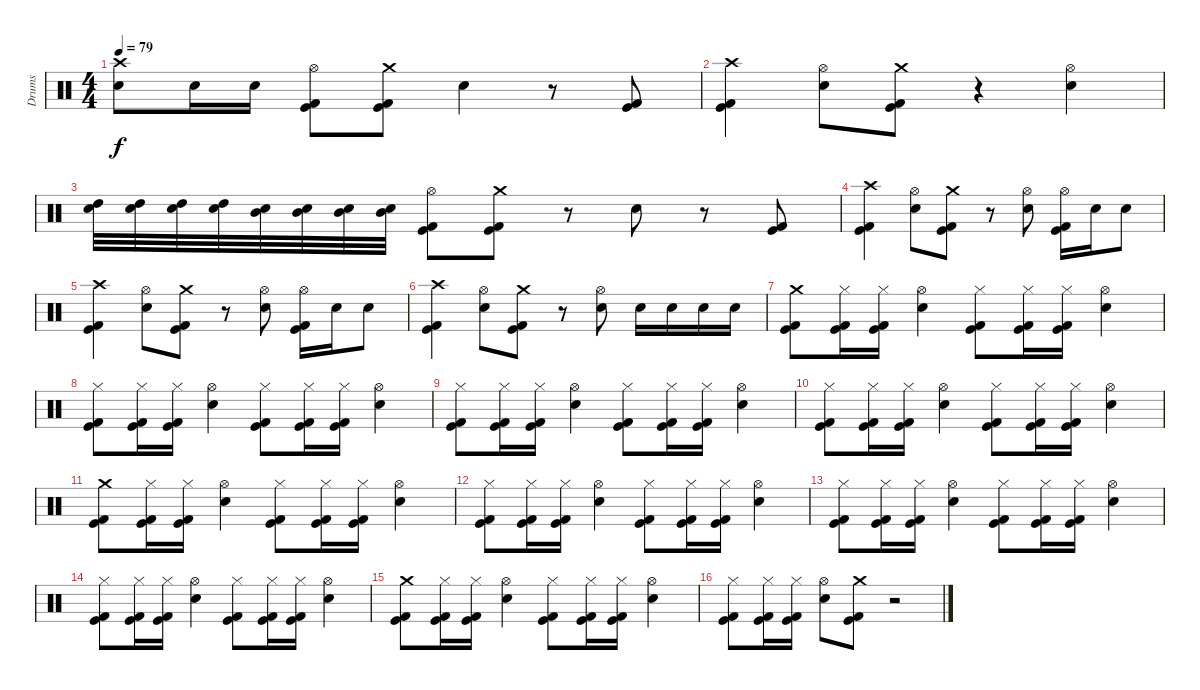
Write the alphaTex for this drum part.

\track ("Drums" "Drums") {instrument percussion}
\staff {score}
\articulation defaults
\ts (4 4)
\tempo 79
\clef neutral
\ks c
("Crash high (hit)" "Snare (hit) 2").8{dy f} "Snare (hit) 2".16 "Snare (hit) 2".16 ("Hi-Hat (open)" "Kick (hit) 2" "Kick (hit)").8 ("Crash medium (hit)" "Kick (hit) 2" "Kick (hit)").8 "Snare (hit) 2".4 r.8 ("Kick (hit) 2" "Kick (hit)").8 |
("Crash high (hit)" "Kick (hit) 2" "Kick (hit)").4 ("Hi-Hat (open)" "Snare (hit) 2").8 ("Crash medium (hit)" "Kick (hit) 2" "Kick (hit)").8 r.4 ("Hi-Hat (open)" "Snare (hit) 2").4 |
("Snare (hit) 2" "High Tom (hit)").32 ("Snare (hit) 2" "High Tom (hit)").32 ("Snare (hit) 2" "High Tom (hit)").32 ("Snare (hit) 2" "High Tom (hit)").32 ("Snare (hit) 2" "Mid Tom (hit)").32 ("Snare (hit) 2" "Mid Tom (hit)").32 ("Snare (hit) 2" "Mid Tom (hit)").32 ("Snare (hit) 2" "Mid Tom (hit)").32 ("Hi-Hat (open)" "Kick (hit) 2" "Kick (hit)").8 ("Crash medium (hit)" "Kick (hit) 2" "Kick (hit)").8 r.8 "Snare (hit) 2".8 r.8 ("Kick (hit) 2" "Kick (hit)").8 |
("Crash high (hit)" "Kick (hit) 2" "Kick (hit)").4 ("Hi-Hat (open)" "Snare (hit) 2").8 ("Crash medium (hit)" "Kick (hit) 2" "Kick (hit)").8 r.8 ("Hi-Hat (open)" "Snare (hit) 2").8 ("Hi-Hat (open)" "Kick (hit) 2" "Kick (hit)").16 "Snare (hit) 2".16 "Snare (hit) 2".8 |
("Crash high (hit)" "Kick (hit) 2" "Kick (hit)").4 ("Hi-Hat (open)" "Snare (hit) 2").8 ("Crash medium (hit)" "Kick (hit) 2" "Kick (hit)").8 r.8 ("Hi-Hat (open)" "Snare (hit) 2").8 ("Hi-Hat (open)" "Kick (hit) 2" "Kick (hit)").16 "Snare (hit) 2".16 "Snare (hit) 2".8 |
("Crash high (hit)" "Kick (hit) 2" "Kick (hit)").4 ("Hi-Hat (open)" "Snare (hit) 2").8 ("Crash medium (hit)" "Kick (hit) 2" "Kick (hit)").8 r.8 ("Hi-Hat (open)" "Snare (hit) 2").8 "Snare (hit) 2".16 "Snare (hit) 2".16 "Snare (hit) 2".16 "Snare (hit) 2".16 |
("Crash medium (hit)" "Kick (hit) 2" "Kick (hit)").8 ("Hi-Hat (closed)" "Kick (hit) 2" "Kick (hit)").16 ("Hi-Hat (closed)" "Kick (hit) 2" "Kick (hit)").16 ("Hi-Hat (open)" "Snare (hit) 2").4 ("Hi-Hat (closed)" "Kick (hit) 2" "Kick (hit)").8 ("Hi-Hat (closed)" "Kick (hit) 2" "Kick (hit)").16 ("Hi-Hat (closed)" "Kick (hit) 2" "Kick (hit)").16 ("Hi-Hat (open)" "Snare (hit) 2").4 |
("Hi-Hat (closed)" "Kick (hit) 2" "Kick (hit)").8 ("Hi-Hat (closed)" "Kick (hit) 2" "Kick (hit)").16 ("Hi-Hat (closed)" "Kick (hit) 2" "Kick (hit)").16 ("Hi-Hat (open)" "Snare (hit) 2").4 ("Hi-Hat (closed)" "Kick (hit) 2" "Kick (hit)").8 ("Hi-Hat (closed)" "Kick (hit) 2" "Kick (hit)").16 ("Hi-Hat (closed)" "Kick (hit) 2" "Kick (hit)").16 ("Hi-Hat (open)" "Snare (hit) 2").4 |
("Hi-Hat (closed)" "Kick (hit) 2" "Kick (hit)").8 ("Hi-Hat (closed)" "Kick (hit) 2" "Kick (hit)").16 ("Hi-Hat (closed)" "Kick (hit) 2" "Kick (hit)").16 ("Hi-Hat (open)" "Snare (hit) 2").4 ("Hi-Hat (closed)" "Kick (hit) 2" "Kick (hit)").8 ("Hi-Hat (closed)" "Kick (hit) 2" "Kick (hit)").16 ("Hi-Hat (closed)" "Kick (hit) 2" "Kick (hit)").16 ("Hi-Hat (open)" "Snare (hit) 2").4 |
("Hi-Hat (closed)" "Kick (hit) 2" "Kick (hit)").8 ("Hi-Hat (closed)" "Kick (hit) 2" "Kick (hit)").16 ("Hi-Hat (closed)" "Kick (hit) 2" "Kick (hit)").16 ("Hi-Hat (open)" "Snare (hit) 2").4 ("Hi-Hat (closed)" "Kick (hit) 2" "Kick (hit)").8 ("Hi-Hat (closed)" "Kick (hit) 2" "Kick (hit)").16 ("Hi-Hat (closed)" "Kick (hit) 2" "Kick (hit)").16 ("Hi-Hat (open)" "Snare (hit) 2").4 |
("Crash medium (hit)" "Kick (hit) 2" "Kick (hit)").8 ("Hi-Hat (closed)" "Kick (hit) 2" "Kick (hit)").16 ("Hi-Hat (closed)" "Kick (hit) 2" "Kick (hit)").16 ("Hi-Hat (open)" "Snare (hit) 2").4 ("Hi-Hat (closed)" "Kick (hit) 2" "Kick (hit)").8 ("Hi-Hat (closed)" "Kick (hit) 2" "Kick (hit)").16 ("Hi-Hat (closed)" "Kick (hit) 2" "Kick (hit)").16 ("Hi-Hat (open)" "Snare (hit) 2").4 |
("Hi-Hat (closed)" "Kick (hit) 2" "Kick (hit)").8 ("Hi-Hat (closed)" "Kick (hit) 2" "Kick (hit)").16 ("Hi-Hat (closed)" "Kick (hit) 2" "Kick (hit)").16 ("Hi-Hat (open)" "Snare (hit) 2").4 ("Hi-Hat (closed)" "Kick (hit) 2" "Kick (hit)").8 ("Hi-Hat (closed)" "Kick (hit) 2" "Kick (hit)").16 ("Hi-Hat (closed)" "Kick (hit) 2" "Kick (hit)").16 ("Hi-Hat (open)" "Snare (hit) 2").4 |
("Hi-Hat (closed)" "Kick (hit) 2" "Kick (hit)").8 ("Hi-Hat (closed)" "Kick (hit) 2" "Kick (hit)").16 ("Hi-Hat (closed)" "Kick (hit) 2" "Kick (hit)").16 ("Hi-Hat (open)" "Snare (hit) 2").4 ("Hi-Hat (closed)" "Kick (hit) 2" "Kick (hit)").8 ("Hi-Hat (closed)" "Kick (hit) 2" "Kick (hit)").16 ("Hi-Hat (closed)" "Kick (hit) 2" "Kick (hit)").16 ("Hi-Hat (open)" "Snare (hit) 2").4 |
("Hi-Hat (closed)" "Kick (hit) 2" "Kick (hit)").8 ("Hi-Hat (closed)" "Kick (hit) 2" "Kick (hit)").16 ("Hi-Hat (closed)" "Kick (hit) 2" "Kick (hit)").16 ("Hi-Hat (open)" "Snare (hit) 2").4 ("Hi-Hat (closed)" "Kick (hit) 2" "Kick (hit)").8 ("Hi-Hat (closed)" "Kick (hit) 2" "Kick (hit)").16 ("Hi-Hat (closed)" "Kick (hit) 2" "Kick (hit)").16 ("Hi-Hat (open)" "Snare (hit) 2").4 |
("Crash medium (hit)" "Kick (hit) 2" "Kick (hit)").8 ("Hi-Hat (closed)" "Kick (hit) 2" "Kick (hit)").16 ("Hi-Hat (closed)" "Kick (hit) 2" "Kick (hit)").16 ("Hi-Hat (open)" "Snare (hit) 2").4 ("Hi-Hat (closed)" "Kick (hit) 2" "Kick (hit)").8 ("Hi-Hat (closed)" "Kick (hit) 2" "Kick (hit)").16 ("Hi-Hat (closed)" "Kick (hit) 2" "Kick (hit)").16 ("Hi-Hat (open)" "Snare (hit) 2").4 |
("Hi-Hat (closed)" "Kick (hit) 2" "Kick (hit)").8 ("Hi-Hat (closed)" "Kick (hit) 2" "Kick (hit)").16 ("Hi-Hat (closed)" "Kick (hit) 2" "Kick (hit)").16 ("Hi-Hat (open)" "Snare (hit) 2").8 ("Crash medium (hit)" "Kick (hit) 2" "Kick (hit)").8 r.2
